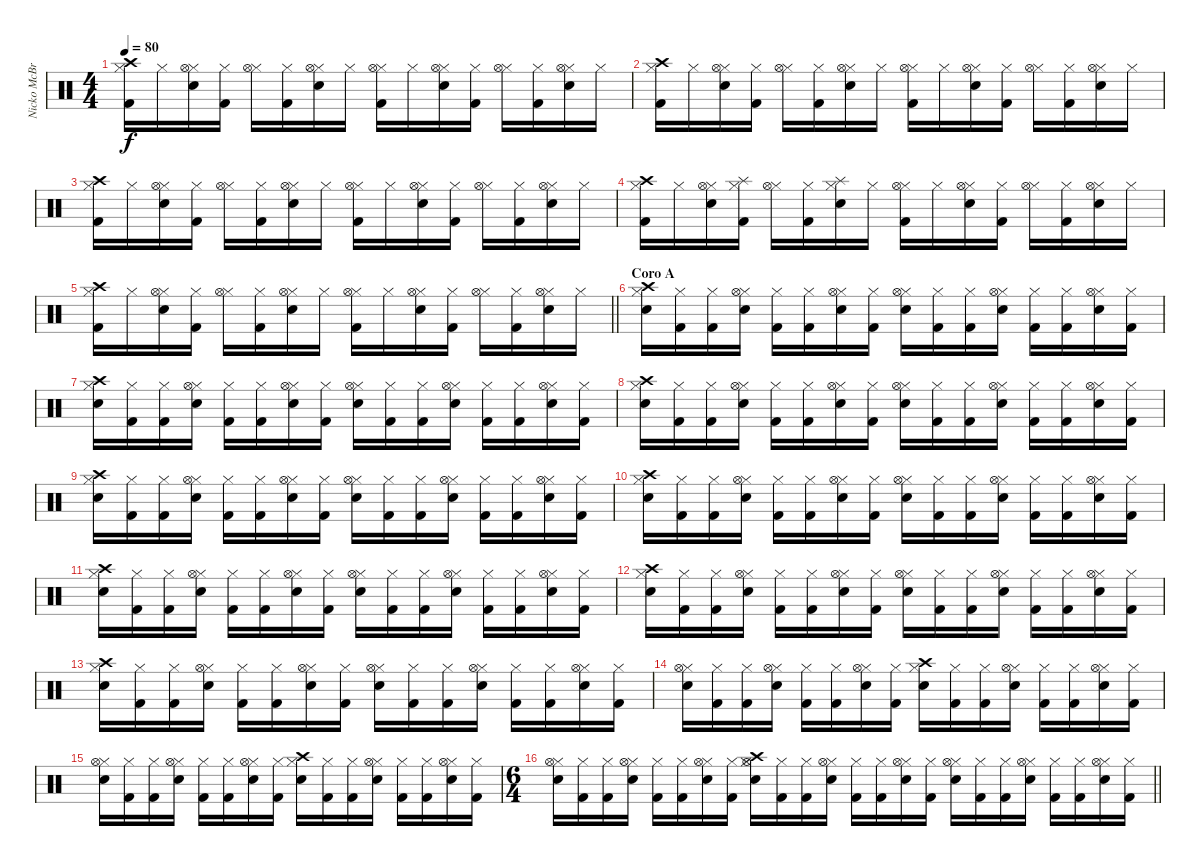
\track ("Nicko McBrain" "Nicko McBr") {instrument percussion}
\staff {score}
\articulation defaults
\ts (4 4)
\tempo 80
\clef neutral
\ks c
("Kick (hit) 2" "Hi-Hat (closed)" "Crash high (hit)").16{dy f} "Hi-Hat (closed)".16 ("Snare (hit) 2" "Hi-Hat (closed)" "Hi-Hat (open)").16 ("Kick (hit) 2" "Hi-Hat (closed)").16 ("Hi-Hat (closed)" "Hi-Hat (open)").16 ("Kick (hit) 2" "Hi-Hat (closed)").16 ("Snare (hit) 2" "Hi-Hat (closed)" "Hi-Hat (open)").16 "Hi-Hat (closed)".16 ("Kick (hit) 2" "Hi-Hat (closed)" "Hi-Hat (open)").16 "Hi-Hat (closed)".16 ("Snare (hit) 2" "Hi-Hat (closed)" "Hi-Hat (open)").16 ("Kick (hit) 2" "Hi-Hat (closed)").16 ("Hi-Hat (closed)" "Hi-Hat (open)").16 ("Kick (hit) 2" "Hi-Hat (closed)").16 ("Snare (hit) 2" "Hi-Hat (closed)" "Hi-Hat (open)").16 "Hi-Hat (closed)".16 |
("Kick (hit) 2" "Hi-Hat (closed)" "Crash high (hit)").16 "Hi-Hat (closed)".16 ("Snare (hit) 2" "Hi-Hat (closed)" "Hi-Hat (open)").16 ("Kick (hit) 2" "Hi-Hat (closed)").16 ("Hi-Hat (closed)" "Hi-Hat (open)").16 ("Kick (hit) 2" "Hi-Hat (closed)").16 ("Snare (hit) 2" "Hi-Hat (closed)" "Hi-Hat (open)").16 "Hi-Hat (closed)".16 ("Kick (hit) 2" "Hi-Hat (closed)" "Hi-Hat (open)").16 "Hi-Hat (closed)".16 ("Snare (hit) 2" "Hi-Hat (closed)" "Hi-Hat (open)").16 ("Kick (hit) 2" "Hi-Hat (closed)").16 ("Hi-Hat (closed)" "Hi-Hat (open)").16 ("Kick (hit) 2" "Hi-Hat (closed)").16 ("Snare (hit) 2" "Hi-Hat (closed)" "Hi-Hat (open)").16 "Hi-Hat (closed)".16 |
("Kick (hit) 2" "Hi-Hat (closed)" "Crash high (hit)").16 "Hi-Hat (closed)".16 ("Snare (hit) 2" "Hi-Hat (closed)" "Hi-Hat (open)").16 ("Kick (hit) 2" "Hi-Hat (closed)").16 ("Hi-Hat (closed)" "Hi-Hat (open)").16 ("Kick (hit) 2" "Hi-Hat (closed)").16 ("Snare (hit) 2" "Hi-Hat (closed)" "Hi-Hat (open)").16 "Hi-Hat (closed)".16 ("Kick (hit) 2" "Hi-Hat (closed)" "Hi-Hat (open)").16 "Hi-Hat (closed)".16 ("Snare (hit) 2" "Hi-Hat (closed)" "Hi-Hat (open)").16 ("Kick (hit) 2" "Hi-Hat (closed)").16 ("Hi-Hat (closed)" "Hi-Hat (open)").16 ("Kick (hit) 2" "Hi-Hat (closed)").16 ("Snare (hit) 2" "Hi-Hat (closed)" "Hi-Hat (open)").16 "Hi-Hat (closed)".16 |
("Kick (hit) 2" "Hi-Hat (closed)" "Crash high (hit)").16 "Hi-Hat (closed)".16 ("Snare (hit) 2" "Hi-Hat (closed)" "Hi-Hat (open)").16 ("Kick (hit) 2" "Hi-Hat (closed)" "Splash (hit)").16 ("Hi-Hat (closed)" "Hi-Hat (open)").16 ("Kick (hit) 2" "Hi-Hat (closed)").16 ("Snare (hit) 2" "Hi-Hat (closed)" "Splash (hit)").16 "Hi-Hat (closed)".16 ("Kick (hit) 2" "Hi-Hat (closed)" "Hi-Hat (open)").16 "Hi-Hat (closed)".16 ("Snare (hit) 2" "Hi-Hat (closed)" "Hi-Hat (open)").16 ("Kick (hit) 2" "Hi-Hat (closed)").16 ("Hi-Hat (closed)" "Hi-Hat (open)").16 ("Kick (hit) 2" "Hi-Hat (closed)").16 ("Snare (hit) 2" "Hi-Hat (closed)" "Hi-Hat (open)").16 "Hi-Hat (closed)".16 |
\barLineRight lightlight
("Kick (hit) 2" "Hi-Hat (closed)" "Crash high (hit)").16 "Hi-Hat (closed)".16 ("Snare (hit) 2" "Hi-Hat (closed)" "Hi-Hat (open)").16 ("Kick (hit) 2" "Hi-Hat (closed)").16 ("Hi-Hat (closed)" "Hi-Hat (open)").16 ("Kick (hit) 2" "Hi-Hat (closed)").16 ("Snare (hit) 2" "Hi-Hat (closed)" "Hi-Hat (open)").16 "Hi-Hat (closed)".16 ("Kick (hit) 2" "Hi-Hat (closed)" "Hi-Hat (open)").16 "Hi-Hat (closed)".16 ("Snare (hit) 2" "Hi-Hat (closed)" "Hi-Hat (open)").16 ("Kick (hit) 2" "Hi-Hat (closed)").16 ("Hi-Hat (closed)" "Hi-Hat (open)").16 ("Kick (hit) 2" "Hi-Hat (closed)").16 ("Snare (hit) 2" "Hi-Hat (closed)" "Hi-Hat (open)").16 "Hi-Hat (closed)".16 |
\section ("" "Coro A")
("Snare (hit) 2" "Hi-Hat (closed)" "Crash high (hit)").16 ("Kick (hit) 2" "Hi-Hat (closed)").16 ("Kick (hit) 2" "Hi-Hat (closed)").16 ("Snare (hit) 2" "Hi-Hat (closed)" "Hi-Hat (open)").16 ("Kick (hit) 2" "Hi-Hat (closed)").16 ("Kick (hit) 2" "Hi-Hat (closed)").16 ("Snare (hit) 2" "Hi-Hat (closed)" "Hi-Hat (open)").16 ("Kick (hit) 2" "Hi-Hat (closed)").16 ("Snare (hit) 2" "Hi-Hat (closed)" "Hi-Hat (open)").16 ("Kick (hit) 2" "Hi-Hat (closed)").16 ("Kick (hit) 2" "Hi-Hat (closed)").16 ("Snare (hit) 2" "Hi-Hat (closed)" "Hi-Hat (open)").16 ("Kick (hit) 2" "Hi-Hat (closed)").16 ("Kick (hit) 2" "Hi-Hat (closed)").16 ("Snare (hit) 2" "Hi-Hat (closed)" "Hi-Hat (open)").16 ("Kick (hit) 2" "Hi-Hat (closed)").16 |
("Snare (hit) 2" "Hi-Hat (closed)" "Crash high (hit)").16 ("Kick (hit) 2" "Hi-Hat (closed)").16 ("Kick (hit) 2" "Hi-Hat (closed)").16 ("Snare (hit) 2" "Hi-Hat (closed)" "Hi-Hat (open)").16 ("Kick (hit) 2" "Hi-Hat (closed)").16 ("Kick (hit) 2" "Hi-Hat (closed)").16 ("Snare (hit) 2" "Hi-Hat (closed)" "Hi-Hat (open)").16 ("Kick (hit) 2" "Hi-Hat (closed)").16 ("Snare (hit) 2" "Hi-Hat (closed)" "Hi-Hat (open)").16 ("Kick (hit) 2" "Hi-Hat (closed)").16 ("Kick (hit) 2" "Hi-Hat (closed)").16 ("Snare (hit) 2" "Hi-Hat (closed)" "Hi-Hat (open)").16 ("Kick (hit) 2" "Hi-Hat (closed)").16 ("Kick (hit) 2" "Hi-Hat (closed)").16 ("Snare (hit) 2" "Hi-Hat (closed)" "Hi-Hat (open)").16 ("Kick (hit) 2" "Hi-Hat (closed)").16 |
("Snare (hit) 2" "Hi-Hat (closed)" "Crash high (hit)").16 ("Kick (hit) 2" "Hi-Hat (closed)").16 ("Kick (hit) 2" "Hi-Hat (closed)").16 ("Snare (hit) 2" "Hi-Hat (closed)" "Hi-Hat (open)").16 ("Kick (hit) 2" "Hi-Hat (closed)").16 ("Kick (hit) 2" "Hi-Hat (closed)").16 ("Snare (hit) 2" "Hi-Hat (closed)" "Hi-Hat (open)").16 ("Kick (hit) 2" "Hi-Hat (closed)").16 ("Snare (hit) 2" "Hi-Hat (closed)" "Hi-Hat (open)").16 ("Kick (hit) 2" "Hi-Hat (closed)").16 ("Kick (hit) 2" "Hi-Hat (closed)").16 ("Snare (hit) 2" "Hi-Hat (closed)" "Hi-Hat (open)").16 ("Kick (hit) 2" "Hi-Hat (closed)").16 ("Kick (hit) 2" "Hi-Hat (closed)").16 ("Snare (hit) 2" "Hi-Hat (closed)" "Hi-Hat (open)").16 ("Kick (hit) 2" "Hi-Hat (closed)").16 |
("Snare (hit) 2" "Hi-Hat (closed)" "Crash high (hit)").16 ("Kick (hit) 2" "Hi-Hat (closed)").16 ("Kick (hit) 2" "Hi-Hat (closed)").16 ("Snare (hit) 2" "Hi-Hat (closed)" "Hi-Hat (open)").16 ("Kick (hit) 2" "Hi-Hat (closed)").16 ("Kick (hit) 2" "Hi-Hat (closed)").16 ("Snare (hit) 2" "Hi-Hat (closed)" "Hi-Hat (open)").16 ("Kick (hit) 2" "Hi-Hat (closed)").16 ("Snare (hit) 2" "Hi-Hat (closed)" "Hi-Hat (open)").16 ("Kick (hit) 2" "Hi-Hat (closed)").16 ("Kick (hit) 2" "Hi-Hat (closed)").16 ("Snare (hit) 2" "Hi-Hat (closed)" "Hi-Hat (open)").16 ("Kick (hit) 2" "Hi-Hat (closed)").16 ("Kick (hit) 2" "Hi-Hat (closed)").16 ("Snare (hit) 2" "Hi-Hat (closed)" "Hi-Hat (open)").16 ("Kick (hit) 2" "Hi-Hat (closed)").16 |
("Snare (hit) 2" "Hi-Hat (closed)" "Crash high (hit)").16 ("Kick (hit) 2" "Hi-Hat (closed)").16 ("Kick (hit) 2" "Hi-Hat (closed)").16 ("Snare (hit) 2" "Hi-Hat (closed)" "Hi-Hat (open)").16 ("Kick (hit) 2" "Hi-Hat (closed)").16 ("Kick (hit) 2" "Hi-Hat (closed)").16 ("Snare (hit) 2" "Hi-Hat (closed)" "Hi-Hat (open)").16 ("Kick (hit) 2" "Hi-Hat (closed)").16 ("Snare (hit) 2" "Hi-Hat (closed)" "Hi-Hat (open)").16 ("Kick (hit) 2" "Hi-Hat (closed)").16 ("Kick (hit) 2" "Hi-Hat (closed)").16 ("Snare (hit) 2" "Hi-Hat (closed)" "Hi-Hat (open)").16 ("Kick (hit) 2" "Hi-Hat (closed)").16 ("Kick (hit) 2" "Hi-Hat (closed)").16 ("Snare (hit) 2" "Hi-Hat (closed)" "Hi-Hat (open)").16 ("Kick (hit) 2" "Hi-Hat (closed)").16 |
("Snare (hit) 2" "Hi-Hat (closed)" "Crash high (hit)").16 ("Kick (hit) 2" "Hi-Hat (closed)").16 ("Kick (hit) 2" "Hi-Hat (closed)").16 ("Snare (hit) 2" "Hi-Hat (closed)" "Hi-Hat (open)").16 ("Kick (hit) 2" "Hi-Hat (closed)").16 ("Kick (hit) 2" "Hi-Hat (closed)").16 ("Snare (hit) 2" "Hi-Hat (closed)" "Hi-Hat (open)").16 ("Kick (hit) 2" "Hi-Hat (closed)").16 ("Snare (hit) 2" "Hi-Hat (closed)" "Hi-Hat (open)").16 ("Kick (hit) 2" "Hi-Hat (closed)").16 ("Kick (hit) 2" "Hi-Hat (closed)").16 ("Snare (hit) 2" "Hi-Hat (closed)" "Hi-Hat (open)").16 ("Kick (hit) 2" "Hi-Hat (closed)").16 ("Kick (hit) 2" "Hi-Hat (closed)").16 ("Snare (hit) 2" "Hi-Hat (closed)" "Hi-Hat (open)").16 ("Kick (hit) 2" "Hi-Hat (closed)").16 |
("Snare (hit) 2" "Hi-Hat (closed)" "Crash high (hit)").16 ("Kick (hit) 2" "Hi-Hat (closed)").16 ("Kick (hit) 2" "Hi-Hat (closed)").16 ("Snare (hit) 2" "Hi-Hat (closed)" "Hi-Hat (open)").16 ("Kick (hit) 2" "Hi-Hat (closed)").16 ("Kick (hit) 2" "Hi-Hat (closed)").16 ("Snare (hit) 2" "Hi-Hat (closed)" "Hi-Hat (open)").16 ("Kick (hit) 2" "Hi-Hat (closed)").16 ("Snare (hit) 2" "Hi-Hat (closed)" "Hi-Hat (open)").16 ("Kick (hit) 2" "Hi-Hat (closed)").16 ("Kick (hit) 2" "Hi-Hat (closed)").16 ("Snare (hit) 2" "Hi-Hat (closed)" "Hi-Hat (open)").16 ("Kick (hit) 2" "Hi-Hat (closed)").16 ("Kick (hit) 2" "Hi-Hat (closed)").16 ("Snare (hit) 2" "Hi-Hat (closed)" "Hi-Hat (open)").16 ("Kick (hit) 2" "Hi-Hat (closed)").16 |
("Snare (hit) 2" "Hi-Hat (closed)" "Crash high (hit)").16 ("Kick (hit) 2" "Hi-Hat (closed)").16 ("Kick (hit) 2" "Hi-Hat (closed)").16 ("Snare (hit) 2" "Hi-Hat (closed)" "Hi-Hat (open)").16 ("Kick (hit) 2" "Hi-Hat (closed)").16 ("Kick (hit) 2" "Hi-Hat (closed)").16 ("Snare (hit) 2" "Hi-Hat (closed)" "Hi-Hat (open)").16 ("Kick (hit) 2" "Hi-Hat (closed)").16 ("Snare (hit) 2" "Hi-Hat (closed)" "Hi-Hat (open)").16 ("Kick (hit) 2" "Hi-Hat (closed)").16 ("Kick (hit) 2" "Hi-Hat (closed)").16 ("Snare (hit) 2" "Hi-Hat (closed)" "Hi-Hat (open)").16 ("Kick (hit) 2" "Hi-Hat (closed)").16 ("Kick (hit) 2" "Hi-Hat (closed)").16 ("Snare (hit) 2" "Hi-Hat (closed)" "Hi-Hat (open)").16 ("Kick (hit) 2" "Hi-Hat (closed)").16 |
("Snare (hit) 2" "Hi-Hat (closed)" "Hi-Hat (open)").16 ("Kick (hit) 2" "Hi-Hat (closed)").16 ("Kick (hit) 2" "Hi-Hat (closed)").16 ("Snare (hit) 2" "Hi-Hat (closed)" "Hi-Hat (open)").16 ("Kick (hit) 2" "Hi-Hat (closed)").16 ("Kick (hit) 2" "Hi-Hat (closed)").16 ("Snare (hit) 2" "Hi-Hat (closed)" "Hi-Hat (open)").16 ("Kick (hit) 2" "Hi-Hat (closed)").16 ("Snare (hit) 2" "Hi-Hat (closed)" "Crash high (hit)").16 ("Kick (hit) 2" "Hi-Hat (closed)").16 ("Kick (hit) 2" "Hi-Hat (closed)").16 ("Snare (hit) 2" "Hi-Hat (closed)" "Hi-Hat (open)").16 ("Kick (hit) 2" "Hi-Hat (closed)").16 ("Kick (hit) 2" "Hi-Hat (closed)").16 ("Snare (hit) 2" "Hi-Hat (closed)" "Hi-Hat (open)").16 ("Kick (hit) 2" "Hi-Hat (closed)").16 |
("Snare (hit) 2" "Hi-Hat (closed)" "Hi-Hat (open)").16 ("Kick (hit) 2" "Hi-Hat (closed)").16 ("Kick (hit) 2" "Hi-Hat (closed)").16 ("Snare (hit) 2" "Hi-Hat (closed)" "Hi-Hat (open)").16 ("Kick (hit) 2" "Hi-Hat (closed)").16 ("Kick (hit) 2" "Hi-Hat (closed)").16 ("Snare (hit) 2" "Hi-Hat (closed)" "Hi-Hat (open)").16 ("Kick (hit) 2" "Hi-Hat (closed)").16 ("Snare (hit) 2" "Hi-Hat (closed)" "Crash high (hit)").16 ("Kick (hit) 2" "Hi-Hat (closed)").16 ("Kick (hit) 2" "Hi-Hat (closed)").16 ("Snare (hit) 2" "Hi-Hat (closed)" "Hi-Hat (open)").16 ("Kick (hit) 2" "Hi-Hat (closed)").16 ("Kick (hit) 2" "Hi-Hat (closed)").16 ("Snare (hit) 2" "Hi-Hat (closed)" "Hi-Hat (open)").16 ("Kick (hit) 2" "Hi-Hat (closed)").16 |
\ts (6 4)
\barLineRight lightlight
("Snare (hit) 2" "Hi-Hat (closed)" "Hi-Hat (open)").16 ("Kick (hit) 2" "Hi-Hat (closed)").16 ("Kick (hit) 2" "Hi-Hat (closed)").16 ("Snare (hit) 2" "Hi-Hat (closed)" "Hi-Hat (open)").16 ("Kick (hit) 2" "Hi-Hat (closed)").16 ("Kick (hit) 2" "Hi-Hat (closed)").16 ("Snare (hit) 2" "Hi-Hat (closed)" "Hi-Hat (open)").16 ("Kick (hit) 2" "Hi-Hat (closed)").16 ("Snare (hit) 2" "Hi-Hat (closed)" "Hi-Hat (open)" "Crash high (hit)").16 ("Kick (hit) 2" "Hi-Hat (closed)").16 ("Kick (hit) 2" "Hi-Hat (closed)").16 ("Snare (hit) 2" "Hi-Hat (closed)" "Hi-Hat (open)").16 ("Kick (hit) 2" "Hi-Hat (closed)").16 ("Kick (hit) 2" "Hi-Hat (closed)").16 ("Snare (hit) 2" "Hi-Hat (closed)" "Hi-Hat (open)").16 ("Kick (hit) 2" "Hi-Hat (closed)").16 ("Snare (hit) 2" "Hi-Hat (closed)" "Hi-Hat (open)").16 ("Kick (hit) 2" "Hi-Hat (closed)").16 ("Kick (hit) 2" "Hi-Hat (closed)").16 ("Snare (hit) 2" "Hi-Hat (closed)" "Hi-Hat (open)").16 ("Kick (hit) 2" "Hi-Hat (closed)").16 ("Kick (hit) 2" "Hi-Hat (closed)").16 ("Snare (hit) 2" "Hi-Hat (closed)" "Hi-Hat (open)").16 ("Kick (hit) 2" "Hi-Hat (closed)").16
